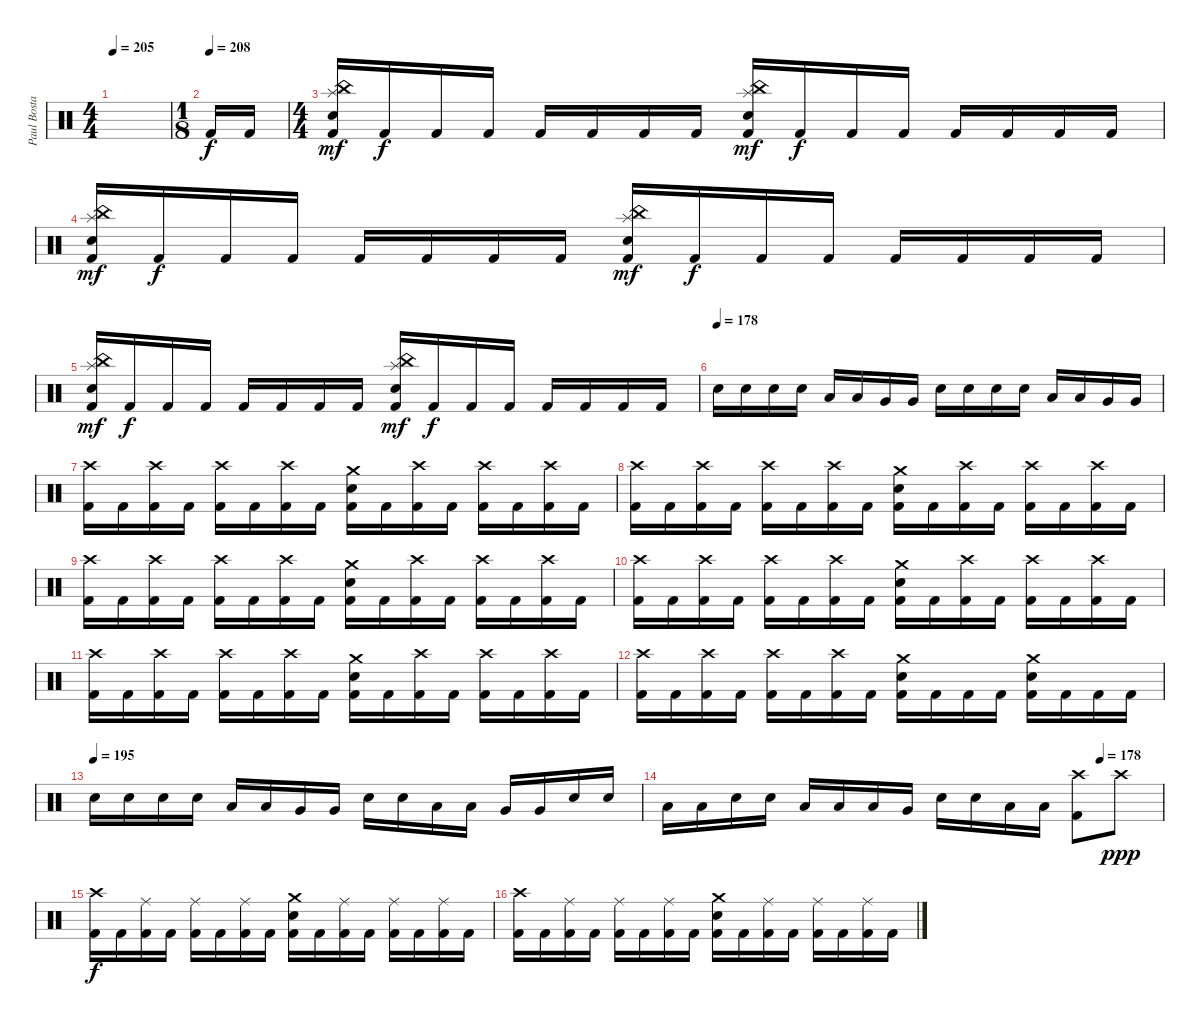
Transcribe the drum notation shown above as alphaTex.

\track ("Paul Bostaph" "Paul Bosta") {instrument percussion}
\staff {score}
\articulation defaults
\ts (4 4)
\tempo 205
\clef neutral
\ks c
|
\ts (1 8)
\tempo (208)
"Kick (hit) 2".16 "Kick (hit) 2".16 |
\ts (4 4)
("Splash (hit)" "China (hit)" "Electric Snare (hit)" "Kick (hit) 2").16{dy mf} "Kick (hit) 2".16{dy f} "Kick (hit) 2".16 "Kick (hit) 2".16 "Kick (hit) 2".16 "Kick (hit) 2".16 "Kick (hit) 2".16 "Kick (hit) 2".16 ("Splash (hit)" "China (hit)" "Electric Snare (hit)" "Kick (hit) 2").16{dy mf} "Kick (hit) 2".16{dy f} "Kick (hit) 2".16 "Kick (hit) 2".16 "Kick (hit) 2".16 "Kick (hit) 2".16 "Kick (hit) 2".16 "Kick (hit) 2".16 |
("Splash (hit)" "China (hit)" "Electric Snare (hit)" "Kick (hit) 2").16{dy mf} "Kick (hit) 2".16{dy f} "Kick (hit) 2".16 "Kick (hit) 2".16 "Kick (hit) 2".16 "Kick (hit) 2".16 "Kick (hit) 2".16 "Kick (hit) 2".16 ("Splash (hit)" "China (hit)" "Electric Snare (hit)" "Kick (hit) 2").16{dy mf} "Kick (hit) 2".16{dy f} "Kick (hit) 2".16 "Kick (hit) 2".16 "Kick (hit) 2".16 "Kick (hit) 2".16 "Kick (hit) 2".16 "Kick (hit) 2".16 |
("Splash (hit)" "China (hit)" "Electric Snare (hit)" "Kick (hit) 2").16{dy mf} "Kick (hit) 2".16{dy f} "Kick (hit) 2".16 "Kick (hit) 2".16 "Kick (hit) 2".16 "Kick (hit) 2".16 "Kick (hit) 2".16 "Kick (hit) 2".16 ("Splash (hit)" "China (hit)" "Electric Snare (hit)" "Kick (hit) 2").16{dy mf} "Kick (hit) 2".16{dy f} "Kick (hit) 2".16 "Kick (hit) 2".16 "Kick (hit) 2".16 "Kick (hit) 2".16 "Kick (hit) 2".16 "Kick (hit) 2".16 |
\tempo (178)
"Electric Snare (hit)".16 "Electric Snare (hit)".16 "Electric Snare (hit)".16 "Electric Snare (hit)".16 "Low Tom (hit)".16 "Low Tom (hit)".16 "Very Low Tom (hit)".16 "Very Low Tom (hit)".16 "Electric Snare (hit)".16 "Electric Snare (hit)".16 "Electric Snare (hit)".16 "Electric Snare (hit)".16 "Low Tom (hit)".16 "Low Tom (hit)".16 "Very Low Tom (hit)".16 "Very Low Tom (hit)".16 |
("Crash high (hit)" "Kick (hit) 2").16 "Kick (hit) 2".16 ("Crash high (hit)" "Kick (hit) 2").16 "Kick (hit) 2".16 ("Crash high (hit)" "Kick (hit) 2").16 "Kick (hit) 2".16 ("Crash high (hit)" "Kick (hit) 2").16 "Kick (hit) 2".16 ("Crash medium (hit)" "Electric Snare (hit)" "Kick (hit) 2").16 "Kick (hit) 2".16 ("Crash high (hit)" "Kick (hit) 2").16 "Kick (hit) 2".16 ("Crash high (hit)" "Kick (hit) 2").16 "Kick (hit) 2".16 ("Crash high (hit)" "Kick (hit) 2").16 "Kick (hit) 2".16 |
("Crash high (hit)" "Kick (hit) 2").16 "Kick (hit) 2".16 ("Crash high (hit)" "Kick (hit) 2").16 "Kick (hit) 2".16 ("Crash high (hit)" "Kick (hit) 2").16 "Kick (hit) 2".16 ("Crash high (hit)" "Kick (hit) 2").16 "Kick (hit) 2".16 ("Crash medium (hit)" "Electric Snare (hit)" "Kick (hit) 2").16 "Kick (hit) 2".16 ("Crash high (hit)" "Kick (hit) 2").16 "Kick (hit) 2".16 ("Crash high (hit)" "Kick (hit) 2").16 "Kick (hit) 2".16 ("Crash high (hit)" "Kick (hit) 2").16 "Kick (hit) 2".16 |
("Crash high (hit)" "Kick (hit) 2").16 "Kick (hit) 2".16 ("Crash high (hit)" "Kick (hit) 2").16 "Kick (hit) 2".16 ("Crash high (hit)" "Kick (hit) 2").16 "Kick (hit) 2".16 ("Crash high (hit)" "Kick (hit) 2").16 "Kick (hit) 2".16 ("Crash medium (hit)" "Electric Snare (hit)" "Kick (hit) 2").16 "Kick (hit) 2".16 ("Crash high (hit)" "Kick (hit) 2").16 "Kick (hit) 2".16 ("Crash high (hit)" "Kick (hit) 2").16 "Kick (hit) 2".16 ("Crash high (hit)" "Kick (hit) 2").16 "Kick (hit) 2".16 |
("Crash high (hit)" "Kick (hit) 2").16 "Kick (hit) 2".16 ("Crash high (hit)" "Kick (hit) 2").16 "Kick (hit) 2".16 ("Crash high (hit)" "Kick (hit) 2").16 "Kick (hit) 2".16 ("Crash high (hit)" "Kick (hit) 2").16 "Kick (hit) 2".16 ("Crash medium (hit)" "Electric Snare (hit)" "Kick (hit) 2").16 "Kick (hit) 2".16 ("Crash high (hit)" "Kick (hit) 2").16 "Kick (hit) 2".16 ("Crash high (hit)" "Kick (hit) 2").16 "Kick (hit) 2".16 ("Crash high (hit)" "Kick (hit) 2").16 "Kick (hit) 2".16 |
("Crash high (hit)" "Kick (hit) 2").16 "Kick (hit) 2".16 ("Crash high (hit)" "Kick (hit) 2").16 "Kick (hit) 2".16 ("Crash high (hit)" "Kick (hit) 2").16 "Kick (hit) 2".16 ("Crash high (hit)" "Kick (hit) 2").16 "Kick (hit) 2".16 ("Crash medium (hit)" "Electric Snare (hit)" "Kick (hit) 2").16 "Kick (hit) 2".16 ("Crash high (hit)" "Kick (hit) 2").16 "Kick (hit) 2".16 ("Crash high (hit)" "Kick (hit) 2").16 "Kick (hit) 2".16 ("Crash high (hit)" "Kick (hit) 2").16 "Kick (hit) 2".16 |
("Crash high (hit)" "Kick (hit) 2").16 "Kick (hit) 2".16 ("Crash high (hit)" "Kick (hit) 2").16 "Kick (hit) 2".16 ("Crash high (hit)" "Kick (hit) 2").16 "Kick (hit) 2".16 ("Crash high (hit)" "Kick (hit) 2").16 "Kick (hit) 2".16 ("Crash medium (hit)" "Electric Snare (hit)" "Kick (hit) 2").16 "Kick (hit) 2".16 "Kick (hit) 2".16 "Kick (hit) 2".16 ("Crash medium (hit)" "Electric Snare (hit)" "Kick (hit) 2").16 "Kick (hit) 2".16 "Kick (hit) 2".16 "Kick (hit) 2".16 |
\tempo (195)
"Electric Snare (hit)".16 "Electric Snare (hit)".16 "Electric Snare (hit)".16 "Electric Snare (hit)".16 "Low Tom (hit)".16 "Low Tom (hit)".16 "Very Low Tom (hit)".16 "Very Low Tom (hit)".16 "Electric Snare (hit)".16 "Electric Snare (hit)".16 "Low Tom (hit)".16 "Low Tom (hit)".16 "Very Low Tom (hit)".16 "Very Low Tom (hit)".16 "Electric Snare (hit)".16 "Electric Snare (hit)".16 |
\tempo (178 0.875)
"Low Tom (hit)".16 "Low Tom (hit)".16 "Electric Snare (hit)".16 "Electric Snare (hit)".16 "Low Tom (hit)".16 "Low Tom (hit)".16 "Low Tom (hit)".16 "Very Low Tom (hit)".16 "Electric Snare (hit)".16 "Electric Snare (hit)".16 "Low Tom (hit)".16 "Low Tom (hit)".16 ("Crash high (hit)" "Kick (hit) 2").8 "Crash high (hit)".8{dy ppp} |
("Crash high (hit)" "Kick (hit) 2").16{dy f} "Kick (hit) 2".16 ("Ride (middle)" "Kick (hit) 2").16 "Kick (hit) 2".16 ("Ride (middle)" "Kick (hit) 2").16 "Kick (hit) 2".16 ("Ride (middle)" "Kick (hit) 2").16 "Kick (hit) 2".16 ("Crash medium (hit)" "Electric Snare (hit)" "Kick (hit) 2").16 "Kick (hit) 2".16 ("Ride (middle)" "Kick (hit) 2").16 "Kick (hit) 2".16 ("Ride (middle)" "Kick (hit) 2").16 "Kick (hit) 2".16 ("Ride (middle)" "Kick (hit) 2").16 "Kick (hit) 2".16 |
("Crash high (hit)" "Kick (hit) 2").16 "Kick (hit) 2".16 ("Ride (middle)" "Kick (hit) 2").16 "Kick (hit) 2".16 ("Ride (middle)" "Kick (hit) 2").16 "Kick (hit) 2".16 ("Ride (middle)" "Kick (hit) 2").16 "Kick (hit) 2".16 ("Crash medium (hit)" "Electric Snare (hit)" "Kick (hit) 2").16 "Kick (hit) 2".16 ("Ride (middle)" "Kick (hit) 2").16 "Kick (hit) 2".16 ("Ride (middle)" "Kick (hit) 2").16 "Kick (hit) 2".16 ("Ride (middle)" "Kick (hit) 2").16 "Kick (hit) 2".16
